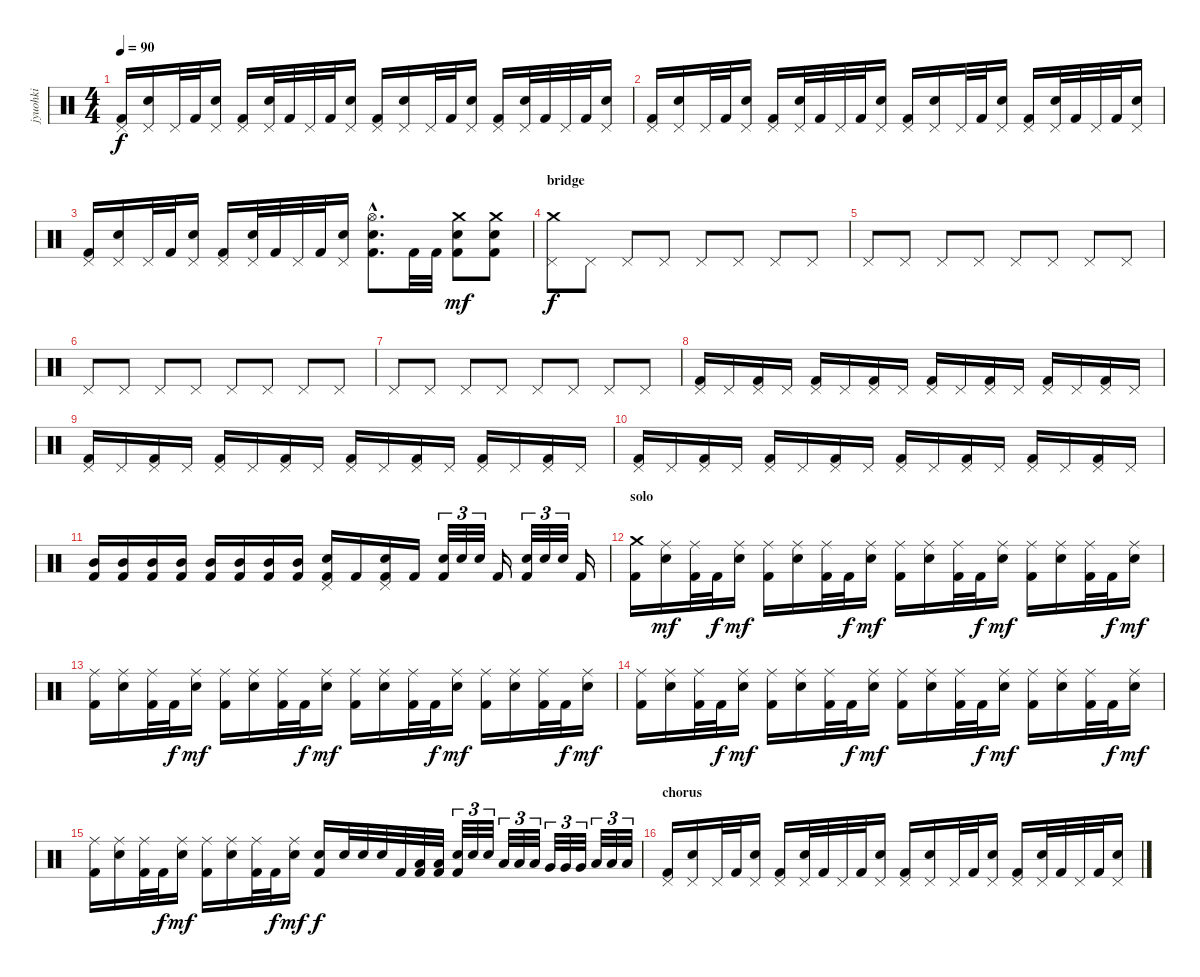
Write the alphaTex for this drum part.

\track ("jyuohki" "jyuohki") {instrument percussion}
\staff {score}
\articulation defaults
\ts (4 4)
\tempo 90
\clef neutral
\ks c
("Pedal Hi-Hat (hit)" "Kick (hit) 2").16{dy f} ("Pedal Hi-Hat (hit)" "Electric Snare (hit)").16 "Pedal Hi-Hat (hit)".32 "Kick (hit) 2".32 ("Pedal Hi-Hat (hit)" "Electric Snare (hit)").16 ("Pedal Hi-Hat (hit)" "Kick (hit) 2").16 ("Pedal Hi-Hat (hit)" "Electric Snare (hit)").32 "Kick (hit) 2".32 "Pedal Hi-Hat (hit)".32 "Kick (hit) 2".32 ("Pedal Hi-Hat (hit)" "Electric Snare (hit)").16 ("Pedal Hi-Hat (hit)" "Kick (hit) 2").16 ("Pedal Hi-Hat (hit)" "Electric Snare (hit)").16 "Pedal Hi-Hat (hit)".32 "Kick (hit) 2".32 ("Pedal Hi-Hat (hit)" "Electric Snare (hit)").16 ("Pedal Hi-Hat (hit)" "Kick (hit) 2").16 ("Pedal Hi-Hat (hit)" "Electric Snare (hit)").32 "Kick (hit) 2".32 "Pedal Hi-Hat (hit)".32 "Kick (hit) 2".32 ("Pedal Hi-Hat (hit)" "Electric Snare (hit)").16 |
("Pedal Hi-Hat (hit)" "Kick (hit) 2").16 ("Pedal Hi-Hat (hit)" "Electric Snare (hit)").16 "Pedal Hi-Hat (hit)".32 "Kick (hit) 2".32 ("Pedal Hi-Hat (hit)" "Electric Snare (hit)").16 ("Pedal Hi-Hat (hit)" "Kick (hit) 2").16 ("Pedal Hi-Hat (hit)" "Electric Snare (hit)").32 "Kick (hit) 2".32 "Pedal Hi-Hat (hit)".32 "Kick (hit) 2".32 ("Pedal Hi-Hat (hit)" "Electric Snare (hit)").16 ("Pedal Hi-Hat (hit)" "Kick (hit) 2").16 ("Pedal Hi-Hat (hit)" "Electric Snare (hit)").16 "Pedal Hi-Hat (hit)".32 "Kick (hit) 2".32 ("Pedal Hi-Hat (hit)" "Electric Snare (hit)").16 ("Pedal Hi-Hat (hit)" "Kick (hit) 2").16 ("Pedal Hi-Hat (hit)" "Electric Snare (hit)").32 "Kick (hit) 2".32 "Pedal Hi-Hat (hit)".32 "Kick (hit) 2".32 ("Pedal Hi-Hat (hit)" "Electric Snare (hit)").16 |
("Pedal Hi-Hat (hit)" "Kick (hit) 2").16 ("Pedal Hi-Hat (hit)" "Electric Snare (hit)").16 "Pedal Hi-Hat (hit)".32 "Kick (hit) 2".32 ("Pedal Hi-Hat (hit)" "Electric Snare (hit)").16 ("Pedal Hi-Hat (hit)" "Kick (hit) 2").16 ("Pedal Hi-Hat (hit)" "Electric Snare (hit)").32 "Kick (hit) 2".32 "Pedal Hi-Hat (hit)".32 "Kick (hit) 2".32 ("Pedal Hi-Hat (hit)" "Electric Snare (hit)").16 ("Hi-Hat (open)"{hac} "Electric Snare (hit)"{hac} "Kick (hit) 2"{hac}).8{d} "Kick (hit) 2".32 "Kick (hit) 2".32 ("Crash medium (hit)" "Electric Snare (hit)" "Kick (hit) 2").8{dy mf} ("Crash medium (hit)" "Electric Snare (hit)" "Kick (hit) 2").8 |
\section ("" "bridge")
("Crash medium (hit)" "Pedal Hi-Hat (hit)").8{dy f} "Pedal Hi-Hat (hit)".8 "Pedal Hi-Hat (hit)".8 "Pedal Hi-Hat (hit)".8 "Pedal Hi-Hat (hit)".8 "Pedal Hi-Hat (hit)".8 "Pedal Hi-Hat (hit)".8 "Pedal Hi-Hat (hit)".8 |
"Pedal Hi-Hat (hit)".8 "Pedal Hi-Hat (hit)".8 "Pedal Hi-Hat (hit)".8 "Pedal Hi-Hat (hit)".8 "Pedal Hi-Hat (hit)".8 "Pedal Hi-Hat (hit)".8 "Pedal Hi-Hat (hit)".8 "Pedal Hi-Hat (hit)".8 |
"Pedal Hi-Hat (hit)".8 "Pedal Hi-Hat (hit)".8 "Pedal Hi-Hat (hit)".8 "Pedal Hi-Hat (hit)".8 "Pedal Hi-Hat (hit)".8 "Pedal Hi-Hat (hit)".8 "Pedal Hi-Hat (hit)".8 "Pedal Hi-Hat (hit)".8 |
"Pedal Hi-Hat (hit)".8 "Pedal Hi-Hat (hit)".8 "Pedal Hi-Hat (hit)".8 "Pedal Hi-Hat (hit)".8 "Pedal Hi-Hat (hit)".8 "Pedal Hi-Hat (hit)".8 "Pedal Hi-Hat (hit)".8 "Pedal Hi-Hat (hit)".8 |
("Pedal Hi-Hat (hit)" "Kick (hit) 2").16 "Pedal Hi-Hat (hit)".16 ("Pedal Hi-Hat (hit)" "Kick (hit) 2").16 "Pedal Hi-Hat (hit)".16 ("Pedal Hi-Hat (hit)" "Kick (hit) 2").16 "Pedal Hi-Hat (hit)".16 ("Pedal Hi-Hat (hit)" "Kick (hit) 2").16 "Pedal Hi-Hat (hit)".16 ("Pedal Hi-Hat (hit)" "Kick (hit) 2").16 "Pedal Hi-Hat (hit)".16 ("Pedal Hi-Hat (hit)" "Kick (hit) 2").16 "Pedal Hi-Hat (hit)".16 ("Pedal Hi-Hat (hit)" "Kick (hit) 2").16 "Pedal Hi-Hat (hit)".16 ("Pedal Hi-Hat (hit)" "Kick (hit) 2").16 "Pedal Hi-Hat (hit)".16 |
("Pedal Hi-Hat (hit)" "Kick (hit) 2").16 "Pedal Hi-Hat (hit)".16 ("Pedal Hi-Hat (hit)" "Kick (hit) 2").16 "Pedal Hi-Hat (hit)".16 ("Pedal Hi-Hat (hit)" "Kick (hit) 2").16 "Pedal Hi-Hat (hit)".16 ("Pedal Hi-Hat (hit)" "Kick (hit) 2").16 "Pedal Hi-Hat (hit)".16 ("Pedal Hi-Hat (hit)" "Kick (hit) 2").16 "Pedal Hi-Hat (hit)".16 ("Pedal Hi-Hat (hit)" "Kick (hit) 2").16 "Pedal Hi-Hat (hit)".16 ("Pedal Hi-Hat (hit)" "Kick (hit) 2").16 "Pedal Hi-Hat (hit)".16 ("Pedal Hi-Hat (hit)" "Kick (hit) 2").16 "Pedal Hi-Hat (hit)".16 |
("Pedal Hi-Hat (hit)" "Kick (hit) 2").16 "Pedal Hi-Hat (hit)".16 ("Pedal Hi-Hat (hit)" "Kick (hit) 2").16 "Pedal Hi-Hat (hit)".16 ("Pedal Hi-Hat (hit)" "Kick (hit) 2").16 "Pedal Hi-Hat (hit)".16 ("Pedal Hi-Hat (hit)" "Kick (hit) 2").16 "Pedal Hi-Hat (hit)".16 ("Pedal Hi-Hat (hit)" "Kick (hit) 2").16 "Pedal Hi-Hat (hit)".16 ("Pedal Hi-Hat (hit)" "Kick (hit) 2").16 "Pedal Hi-Hat (hit)".16 ("Pedal Hi-Hat (hit)" "Kick (hit) 2").16 "Pedal Hi-Hat (hit)".16 ("Pedal Hi-Hat (hit)" "Kick (hit) 2").16 "Pedal Hi-Hat (hit)".16 |
("Mid Tom (hit)" "Kick (hit) 2").16 ("Mid Tom (hit)" "Kick (hit) 2").16 ("Mid Tom (hit)" "Kick (hit) 2").16 ("Mid Tom (hit)" "Kick (hit) 2").16 ("Mid Tom (hit)" "Kick (hit) 2").16 ("Mid Tom (hit)" "Kick (hit) 2").16 ("Mid Tom (hit)" "Kick (hit) 2").16 ("Mid Tom (hit)" "Kick (hit) 2").16 ("Pedal Hi-Hat (hit)" "Electric Snare (hit)" "Kick (hit) 2").16 "Kick (hit) 2".16 ("Pedal Hi-Hat (hit)" "Electric Snare (hit)" "Kick (hit) 2").16 "Kick (hit) 2".16 ("Electric Snare (hit)" "Kick (hit) 2").32{tu (3 2)} "Electric Snare (hit)".32{tu (3 2)} "Electric Snare (hit)".32{tu (3 2)} "Kick (hit) 2".16 ("Electric Snare (hit)" "Kick (hit) 2").32{tu (3 2)} "Electric Snare (hit)".32{tu (3 2)} "Electric Snare (hit)".32{tu (3 2)} "Kick (hit) 2".16 |
\section ("" "solo")
("Crash medium (hit)" "Kick (hit) 2").16 ("Ride (middle)" "Electric Snare (hit)").16{dy mf} ("Ride (middle)" "Kick (hit) 2").32 "Kick (hit) 2".32{dy f} ("Ride (middle)" "Electric Snare (hit)").16{dy mf} ("Ride (middle)" "Kick (hit) 2").16 ("Ride (middle)" "Electric Snare (hit)").16 ("Ride (middle)" "Kick (hit) 2").32 "Kick (hit) 2".32{dy f} ("Ride (middle)" "Electric Snare (hit)").16{dy mf} ("Ride (middle)" "Kick (hit) 2").16 ("Ride (middle)" "Electric Snare (hit)").16 ("Ride (middle)" "Kick (hit) 2").32 "Kick (hit) 2".32{dy f} ("Ride (middle)" "Electric Snare (hit)").16{dy mf} ("Ride (middle)" "Kick (hit) 2").16 ("Ride (middle)" "Electric Snare (hit)").16 ("Ride (middle)" "Kick (hit) 2").32 "Kick (hit) 2".32{dy f} ("Ride (middle)" "Electric Snare (hit)").16{dy mf} |
("Ride (middle)" "Kick (hit) 2").16 ("Ride (middle)" "Electric Snare (hit)").16 ("Ride (middle)" "Kick (hit) 2").32 "Kick (hit) 2".32{dy f} ("Ride (middle)" "Electric Snare (hit)").16{dy mf} ("Ride (middle)" "Kick (hit) 2").16 ("Ride (middle)" "Electric Snare (hit)").16 ("Ride (middle)" "Kick (hit) 2").32 "Kick (hit) 2".32{dy f} ("Ride (middle)" "Electric Snare (hit)").16{dy mf} ("Ride (middle)" "Kick (hit) 2").16 ("Ride (middle)" "Electric Snare (hit)").16 ("Ride (middle)" "Kick (hit) 2").32 "Kick (hit) 2".32{dy f} ("Ride (middle)" "Electric Snare (hit)").16{dy mf} ("Ride (middle)" "Kick (hit) 2").16 ("Ride (middle)" "Electric Snare (hit)").16 ("Ride (middle)" "Kick (hit) 2").32 "Kick (hit) 2".32{dy f} ("Ride (middle)" "Electric Snare (hit)").16{dy mf} |
("Ride (middle)" "Kick (hit) 2").16 ("Ride (middle)" "Electric Snare (hit)").16 ("Ride (middle)" "Kick (hit) 2").32 "Kick (hit) 2".32{dy f} ("Ride (middle)" "Electric Snare (hit)").16{dy mf} ("Ride (middle)" "Kick (hit) 2").16 ("Ride (middle)" "Electric Snare (hit)").16 ("Ride (middle)" "Kick (hit) 2").32 "Kick (hit) 2".32{dy f} ("Ride (middle)" "Electric Snare (hit)").16{dy mf} ("Ride (middle)" "Kick (hit) 2").16 ("Ride (middle)" "Electric Snare (hit)").16 ("Ride (middle)" "Kick (hit) 2").32 "Kick (hit) 2".32{dy f} ("Ride (middle)" "Electric Snare (hit)").16{dy mf} ("Ride (middle)" "Kick (hit) 2").16 ("Ride (middle)" "Electric Snare (hit)").16 ("Ride (middle)" "Kick (hit) 2").32 "Kick (hit) 2".32{dy f} ("Ride (middle)" "Electric Snare (hit)").16{dy mf} |
("Ride (middle)" "Kick (hit) 2").16 ("Ride (middle)" "Electric Snare (hit)").16 ("Ride (middle)" "Kick (hit) 2").32 "Kick (hit) 2".32{dy f} ("Ride (middle)" "Electric Snare (hit)").16{dy mf} ("Ride (middle)" "Kick (hit) 2").16 ("Ride (middle)" "Electric Snare (hit)").16 ("Ride (middle)" "Kick (hit) 2").32 "Kick (hit) 2".32{dy f} ("Ride (middle)" "Electric Snare (hit)").16{dy mf} ("Electric Snare (hit)" "Kick (hit) 2").16{dy f} "Electric Snare (hit)".32 "Electric Snare (hit)".32 "Electric Snare (hit)".32 "Kick (hit) 2".32 ("Low Tom (hit)" "Kick (hit) 2").32 ("Low Tom (hit)" "Kick (hit) 2").32 ("Electric Snare (hit)" "Kick (hit) 2").32{tu (3 2)} "Electric Snare (hit)".32{tu (3 2)} "Electric Snare (hit)".32{tu (3 2)} "Low Tom (hit)".32{tu (3 2)} "Low Tom (hit)".32{tu (3 2)} "Low Tom (hit)".32{tu (3 2)} "Very Low Tom (hit)".32{tu (3 2)} "Very Low Tom (hit)".32{tu (3 2)} "Very Low Tom (hit)".32{tu (3 2)} "Low Floor Tom (hit)".32{tu (3 2)} "Low Floor Tom (hit)".32{tu (3 2)} "Low Floor Tom (hit)".32{tu (3 2)} |
\section ("" "chorus")
("Pedal Hi-Hat (hit)" "Kick (hit) 2").16 ("Pedal Hi-Hat (hit)" "Electric Snare (hit)").16 "Pedal Hi-Hat (hit)".32 "Kick (hit) 2".32 ("Pedal Hi-Hat (hit)" "Electric Snare (hit)").16 ("Pedal Hi-Hat (hit)" "Kick (hit) 2").16 ("Pedal Hi-Hat (hit)" "Electric Snare (hit)").32 "Kick (hit) 2".32 "Pedal Hi-Hat (hit)".32 "Kick (hit) 2".32 ("Pedal Hi-Hat (hit)" "Electric Snare (hit)").16 ("Pedal Hi-Hat (hit)" "Kick (hit) 2").16 ("Pedal Hi-Hat (hit)" "Electric Snare (hit)").16 "Pedal Hi-Hat (hit)".32 "Kick (hit) 2".32 ("Pedal Hi-Hat (hit)" "Electric Snare (hit)").16 ("Pedal Hi-Hat (hit)" "Kick (hit) 2").16 ("Pedal Hi-Hat (hit)" "Electric Snare (hit)").32 "Kick (hit) 2".32 "Pedal Hi-Hat (hit)".32 "Kick (hit) 2".32 ("Pedal Hi-Hat (hit)" "Electric Snare (hit)").16
